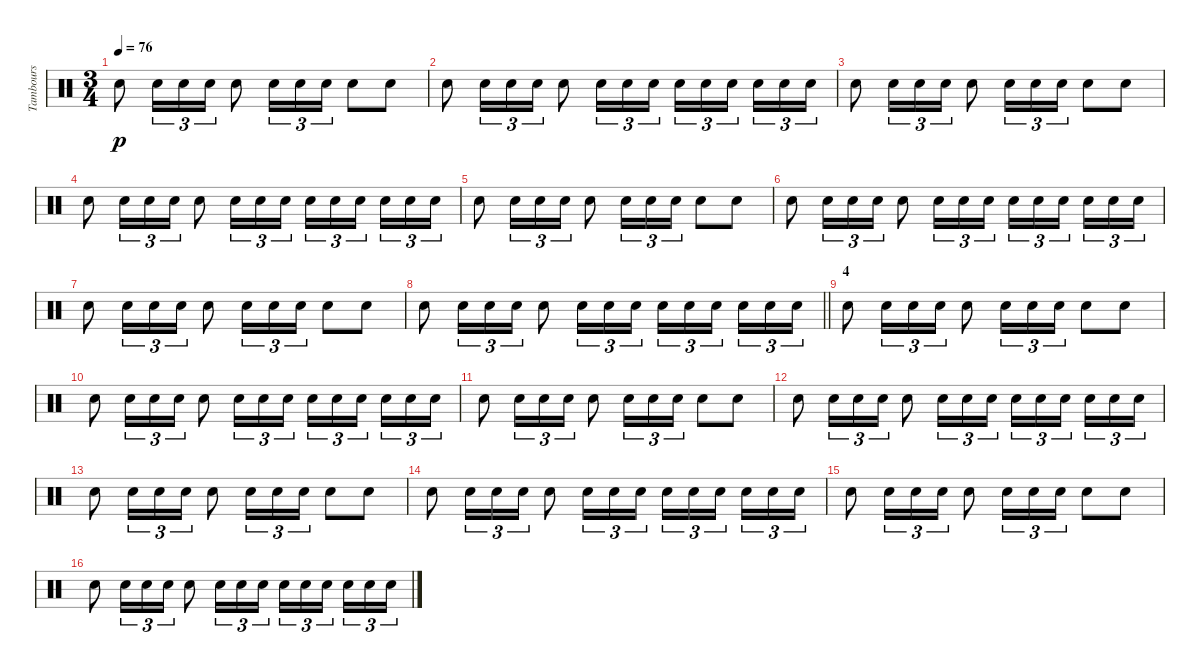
\track ("Tambours" "Tambours") {instrument percussion}
\staff {score}
\articulation defaults
\ts (3 4)
\tempo 76
\clef neutral
\ks c "Snare (hit) 2".8{dy p} "Snare (hit) 2".16{tu (3 2)} "Snare (hit) 2".16{tu (3 2)} "Snare (hit) 2".16{tu (3 2)} "Snare (hit) 2".8 "Snare (hit) 2".16{tu (3 2)} "Snare (hit) 2".16{tu (3 2)} "Snare (hit) 2".16{tu (3 2)} "Snare (hit) 2".8 "Snare (hit) 2".8
|
"Snare (hit) 2".8 "Snare (hit) 2".16{tu (3 2)} "Snare (hit) 2".16{tu (3 2)} "Snare (hit) 2".16{tu (3 2)} "Snare (hit) 2".8 "Snare (hit) 2".16{tu (3 2)} "Snare (hit) 2".16{tu (3 2)} "Snare (hit) 2".16{tu (3 2)} "Snare (hit) 2".16{tu (3 2)} "Snare (hit) 2".16{tu (3 2)} "Snare (hit) 2".16{tu (3 2) beam splitsecondary} "Snare (hit) 2".16{tu (3 2)} "Snare (hit) 2".16{tu (3 2)} "Snare (hit) 2".16{tu (3 2)} |
"Snare (hit) 2".8 "Snare (hit) 2".16{tu (3 2)} "Snare (hit) 2".16{tu (3 2)} "Snare (hit) 2".16{tu (3 2)} "Snare (hit) 2".8 "Snare (hit) 2".16{tu (3 2)} "Snare (hit) 2".16{tu (3 2)} "Snare (hit) 2".16{tu (3 2)} "Snare (hit) 2".8 "Snare (hit) 2".8 |
"Snare (hit) 2".8 "Snare (hit) 2".16{tu (3 2)} "Snare (hit) 2".16{tu (3 2)} "Snare (hit) 2".16{tu (3 2)} "Snare (hit) 2".8 "Snare (hit) 2".16{tu (3 2)} "Snare (hit) 2".16{tu (3 2)} "Snare (hit) 2".16{tu (3 2)} "Snare (hit) 2".16{tu (3 2)} "Snare (hit) 2".16{tu (3 2)} "Snare (hit) 2".16{tu (3 2) beam splitsecondary} "Snare (hit) 2".16{tu (3 2)} "Snare (hit) 2".16{tu (3 2)} "Snare (hit) 2".16{tu (3 2)} |
"Snare (hit) 2".8 "Snare (hit) 2".16{tu (3 2)} "Snare (hit) 2".16{tu (3 2)} "Snare (hit) 2".16{tu (3 2)} "Snare (hit) 2".8 "Snare (hit) 2".16{tu (3 2)} "Snare (hit) 2".16{tu (3 2)} "Snare (hit) 2".16{tu (3 2)} "Snare (hit) 2".8 "Snare (hit) 2".8 |
"Snare (hit) 2".8 "Snare (hit) 2".16{tu (3 2)} "Snare (hit) 2".16{tu (3 2)} "Snare (hit) 2".16{tu (3 2)} "Snare (hit) 2".8 "Snare (hit) 2".16{tu (3 2)} "Snare (hit) 2".16{tu (3 2)} "Snare (hit) 2".16{tu (3 2)} "Snare (hit) 2".16{tu (3 2)} "Snare (hit) 2".16{tu (3 2)} "Snare (hit) 2".16{tu (3 2) beam splitsecondary} "Snare (hit) 2".16{tu (3 2)} "Snare (hit) 2".16{tu (3 2)} "Snare (hit) 2".16{tu (3 2)} |
"Snare (hit) 2".8 "Snare (hit) 2".16{tu (3 2)} "Snare (hit) 2".16{tu (3 2)} "Snare (hit) 2".16{tu (3 2)} "Snare (hit) 2".8 "Snare (hit) 2".16{tu (3 2)} "Snare (hit) 2".16{tu (3 2)} "Snare (hit) 2".16{tu (3 2)} "Snare (hit) 2".8 "Snare (hit) 2".8 |
\barLineRight lightlight "Snare (hit) 2".8 "Snare (hit) 2".16{tu (3 2)} "Snare (hit) 2".16{tu (3 2)} "Snare (hit) 2".16{tu (3 2)} "Snare (hit) 2".8 "Snare (hit) 2".16{tu (3 2)} "Snare (hit) 2".16{tu (3 2)} "Snare (hit) 2".16{tu (3 2)} "Snare (hit) 2".16{tu (3 2)} "Snare (hit) 2".16{tu (3 2)} "Snare (hit) 2".16{tu (3 2) beam splitsecondary} "Snare (hit) 2".16{tu (3 2)} "Snare (hit) 2".16{tu (3 2)} "Snare (hit) 2".16{tu (3 2)}
|
\section ("" "4")
"Snare (hit) 2".8 "Snare (hit) 2".16{tu (3 2)} "Snare (hit) 2".16{tu (3 2)} "Snare (hit) 2".16{tu (3 2)} "Snare (hit) 2".8 "Snare (hit) 2".16{tu (3 2)} "Snare (hit) 2".16{tu (3 2)} "Snare (hit) 2".16{tu (3 2)} "Snare (hit) 2".8 "Snare (hit) 2".8 |
"Snare (hit) 2".8 "Snare (hit) 2".16{tu (3 2)} "Snare (hit) 2".16{tu (3 2)} "Snare (hit) 2".16{tu (3 2)} "Snare (hit) 2".8 "Snare (hit) 2".16{tu (3 2)} "Snare (hit) 2".16{tu (3 2)} "Snare (hit) 2".16{tu (3 2)} "Snare (hit) 2".16{tu (3 2)} "Snare (hit) 2".16{tu (3 2)} "Snare (hit) 2".16{tu (3 2) beam splitsecondary} "Snare (hit) 2".16{tu (3 2)} "Snare (hit) 2".16{tu (3 2)} "Snare (hit) 2".16{tu (3 2)} |
"Snare (hit) 2".8 "Snare (hit) 2".16{tu (3 2)} "Snare (hit) 2".16{tu (3 2)} "Snare (hit) 2".16{tu (3 2)} "Snare (hit) 2".8 "Snare (hit) 2".16{tu (3 2)} "Snare (hit) 2".16{tu (3 2)} "Snare (hit) 2".16{tu (3 2)} "Snare (hit) 2".8 "Snare (hit) 2".8 |
"Snare (hit) 2".8 "Snare (hit) 2".16{tu (3 2)} "Snare (hit) 2".16{tu (3 2)} "Snare (hit) 2".16{tu (3 2)} "Snare (hit) 2".8 "Snare (hit) 2".16{tu (3 2)} "Snare (hit) 2".16{tu (3 2)} "Snare (hit) 2".16{tu (3 2)} "Snare (hit) 2".16{tu (3 2)} "Snare (hit) 2".16{tu (3 2)} "Snare (hit) 2".16{tu (3 2) beam splitsecondary} "Snare (hit) 2".16{tu (3 2)} "Snare (hit) 2".16{tu (3 2)} "Snare (hit) 2".16{tu (3 2)} |
"Snare (hit) 2".8 "Snare (hit) 2".16{tu (3 2)} "Snare (hit) 2".16{tu (3 2)} "Snare (hit) 2".16{tu (3 2)} "Snare (hit) 2".8 "Snare (hit) 2".16{tu (3 2)} "Snare (hit) 2".16{tu (3 2)} "Snare (hit) 2".16{tu (3 2)} "Snare (hit) 2".8 "Snare (hit) 2".8 |
"Snare (hit) 2".8 "Snare (hit) 2".16{tu (3 2)} "Snare (hit) 2".16{tu (3 2)} "Snare (hit) 2".16{tu (3 2)} "Snare (hit) 2".8 "Snare (hit) 2".16{tu (3 2)} "Snare (hit) 2".16{tu (3 2)} "Snare (hit) 2".16{tu (3 2)} "Snare (hit) 2".16{tu (3 2)} "Snare (hit) 2".16{tu (3 2)} "Snare (hit) 2".16{tu (3 2) beam splitsecondary} "Snare (hit) 2".16{tu (3 2)} "Snare (hit) 2".16{tu (3 2)} "Snare (hit) 2".16{tu (3 2)} |
"Snare (hit) 2".8 "Snare (hit) 2".16{tu (3 2)} "Snare (hit) 2".16{tu (3 2)} "Snare (hit) 2".16{tu (3 2)} "Snare (hit) 2".8 "Snare (hit) 2".16{tu (3 2)} "Snare (hit) 2".16{tu (3 2)} "Snare (hit) 2".16{tu (3 2)} "Snare (hit) 2".8 "Snare (hit) 2".8 |
"Snare (hit) 2".8 "Snare (hit) 2".16{tu (3 2)} "Snare (hit) 2".16{tu (3 2)} "Snare (hit) 2".16{tu (3 2)} "Snare (hit) 2".8 "Snare (hit) 2".16{tu (3 2)} "Snare (hit) 2".16{tu (3 2)} "Snare (hit) 2".16{tu (3 2)} "Snare (hit) 2".16{tu (3 2)} "Snare (hit) 2".16{tu (3 2)} "Snare (hit) 2".16{tu (3 2) beam splitsecondary} "Snare (hit) 2".16{tu (3 2)} "Snare (hit) 2".16{tu (3 2)} "Snare (hit) 2".16{tu (3 2)}
